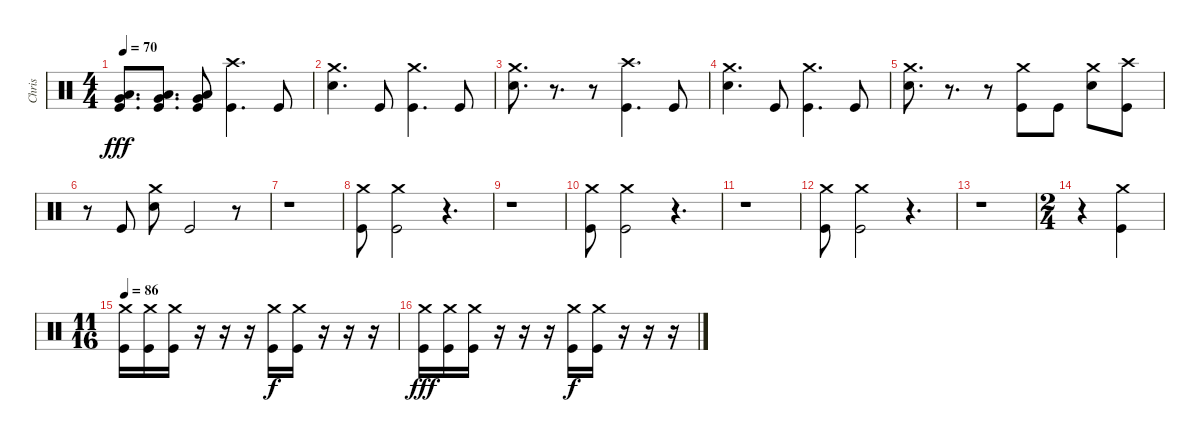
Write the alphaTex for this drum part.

\track ("Chris" "Chris") {instrument percussion}
\staff {score}
\articulation defaults
\ts (4 4)
\tempo 70
\clef neutral
\ks c
("Low Floor Tom (hit)" "Very Low Tom (hit)" "Kick (hit)").8{d dy fff} ("Low Floor Tom (hit)" "Very Low Tom (hit)" "Kick (hit)").8{d} ("Low Floor Tom (hit)" "Very Low Tom (hit)" "Kick (hit)").8 ("Crash high (hit)" "Kick (hit)").4{d} "Kick (hit)".8 |
("Crash medium (hit)" "Snare (hit) 2").4{d} "Kick (hit)".8 ("Crash medium (hit)" "Kick (hit)").4{d} "Kick (hit)".8 |
("Crash medium (hit)" "Snare (hit) 2").8{d} r.8{d} r.8 ("Crash high (hit)" "Kick (hit)").4{d} "Kick (hit)".8 |
("Crash medium (hit)" "Snare (hit) 2").4{d} "Kick (hit)".8 ("Crash medium (hit)" "Kick (hit)").4{d} "Kick (hit)".8 |
("Crash medium (hit)" "Snare (hit) 2").8{d} r.8{d} r.8 ("Crash medium (hit)" "Kick (hit)").8 "Kick (hit)".8 ("Crash medium (hit)" "Snare (hit) 2").8 ("Crash high (hit)" "Kick (hit)").8 |
r.8 "Kick (hit)".8 ("Crash medium (hit)" "Snare (hit) 2").8 "Kick (hit)".2 r.8 |
r.1 |
("Crash medium (hit)" "Kick (hit)").8 ("Crash medium (hit)" "Kick (hit)").2 r.4{d} |
r.1 |
("Crash medium (hit)" "Kick (hit)").8 ("Crash medium (hit)" "Kick (hit)").2 r.4{d} |
r.1 |
("Crash medium (hit)" "Kick (hit)").8 ("Crash medium (hit)" "Kick (hit)").2 r.4{d} |
r.1 |
\ts (2 4)
r.4 ("Crash medium (hit)" "Kick (hit)").4 |
\ts (11 16)
\tempo 86
("Crash medium (hit)" "Kick (hit)").16 ("Crash medium (hit)" "Kick (hit)").16 ("Crash medium (hit)" "Kick (hit)").16 r.16 r.16 r.16 ("Crash medium (hit)" "Kick (hit)").16{dy f} ("Crash medium (hit)" "Kick (hit)").16 r.16 r.16 r.16 |
("Crash medium (hit)" "Kick (hit)").16{dy fff} ("Crash medium (hit)" "Kick (hit)").16 ("Crash medium (hit)" "Kick (hit)").16 r.16 r.16 r.16 ("Crash medium (hit)" "Kick (hit)").16{dy f} ("Crash medium (hit)" "Kick (hit)").16 r.16 r.16 r.16
